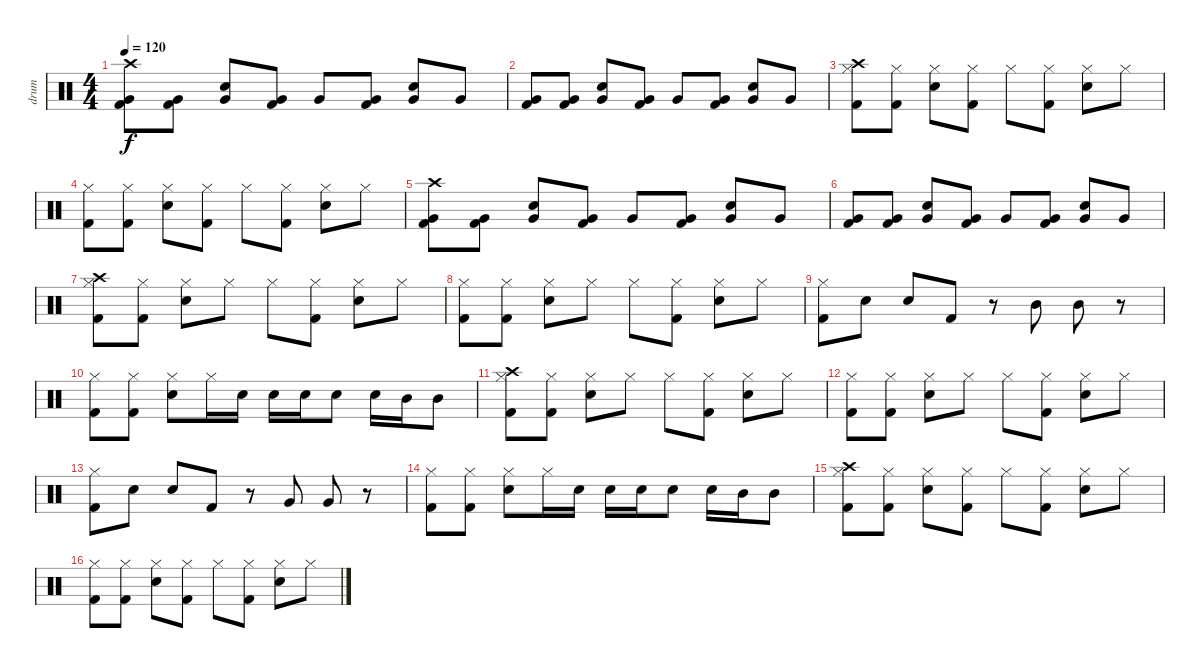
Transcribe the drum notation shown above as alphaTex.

\track ("drum" "drum") {instrument percussion}
\staff {score}
\articulation defaults
\ts (4 4)
\tempo 120
\clef neutral
\ks c
("Crash high (hit)" "Very Low Tom (hit)" "Kick (hit) 2").8{dy f} ("Very Low Tom (hit)" "Kick (hit) 2").8 ("Very Low Tom (hit)" "Electric Snare (hit)").8 ("Very Low Tom (hit)" "Kick (hit) 2").8 "Very Low Tom (hit)".8 ("Very Low Tom (hit)" "Kick (hit) 2").8 ("Very Low Tom (hit)" "Electric Snare (hit)").8 "Very Low Tom (hit)".8 |
("Very Low Tom (hit)" "Kick (hit) 2").8 ("Very Low Tom (hit)" "Kick (hit) 2").8 ("Very Low Tom (hit)" "Electric Snare (hit)").8 ("Very Low Tom (hit)" "Kick (hit) 2").8 "Very Low Tom (hit)".8 ("Very Low Tom (hit)" "Kick (hit) 2").8 ("Very Low Tom (hit)" "Electric Snare (hit)").8 "Very Low Tom (hit)".8 |
("Crash high (hit)" "Hi-Hat (closed)" "Kick (hit) 2").8 ("Hi-Hat (closed)" "Kick (hit) 2").8 ("Hi-Hat (closed)" "Electric Snare (hit)").8 ("Hi-Hat (closed)" "Kick (hit) 2").8 "Hi-Hat (closed)".8 ("Hi-Hat (closed)" "Kick (hit) 2").8 ("Hi-Hat (closed)" "Electric Snare (hit)").8 "Hi-Hat (closed)".8 |
("Hi-Hat (closed)" "Kick (hit) 2").8 ("Hi-Hat (closed)" "Kick (hit) 2").8 ("Hi-Hat (closed)" "Electric Snare (hit)").8 ("Hi-Hat (closed)" "Kick (hit) 2").8 "Hi-Hat (closed)".8 ("Hi-Hat (closed)" "Kick (hit) 2").8 ("Hi-Hat (closed)" "Electric Snare (hit)").8 "Hi-Hat (closed)".8 |
("Crash high (hit)" "Very Low Tom (hit)" "Kick (hit) 2").8 ("Very Low Tom (hit)" "Kick (hit) 2").8 ("Very Low Tom (hit)" "Electric Snare (hit)").8 ("Very Low Tom (hit)" "Kick (hit) 2").8 "Very Low Tom (hit)".8 ("Very Low Tom (hit)" "Kick (hit) 2").8 ("Very Low Tom (hit)" "Electric Snare (hit)").8 "Very Low Tom (hit)".8 |
("Very Low Tom (hit)" "Kick (hit) 2").8 ("Very Low Tom (hit)" "Kick (hit) 2").8 ("Very Low Tom (hit)" "Electric Snare (hit)").8 ("Very Low Tom (hit)" "Kick (hit) 2").8 "Very Low Tom (hit)".8 ("Very Low Tom (hit)" "Kick (hit) 2").8 ("Very Low Tom (hit)" "Electric Snare (hit)").8 "Very Low Tom (hit)".8 |
("Crash high (hit)" "Hi-Hat (closed)" "Kick (hit) 2").8 ("Hi-Hat (closed)" "Kick (hit) 2").8 ("Hi-Hat (closed)" "Electric Snare (hit)").8 "Hi-Hat (closed)".8 "Hi-Hat (closed)".8 ("Hi-Hat (closed)" "Kick (hit) 2").8 ("Hi-Hat (closed)" "Electric Snare (hit)").8 "Hi-Hat (closed)".8 |
("Hi-Hat (closed)" "Kick (hit) 2").8 ("Hi-Hat (closed)" "Kick (hit) 2").8 ("Hi-Hat (closed)" "Electric Snare (hit)").8 "Hi-Hat (closed)".8 "Hi-Hat (closed)".8 ("Hi-Hat (closed)" "Kick (hit) 2").8 ("Hi-Hat (closed)" "Electric Snare (hit)").8 "Hi-Hat (closed)".8 |
("Hi-Hat (closed)" "Kick (hit) 2").8 "Electric Snare (hit)".8 "Electric Snare (hit)".8 "Kick (hit) 2".8 r.8 "Mid Tom (hit)".8 "Mid Tom (hit)".8 r.8 |
("Hi-Hat (closed)" "Kick (hit) 2").8 ("Hi-Hat (closed)" "Kick (hit) 2").8 ("Hi-Hat (closed)" "Electric Snare (hit)").8 "Hi-Hat (closed)".16 "Electric Snare (hit)".16 "Electric Snare (hit)".16 "Electric Snare (hit)".16 "Electric Snare (hit)".8 "Electric Snare (hit)".16 "Mid Tom (hit)".16 "Mid Tom (hit)".8 |
("Crash high (hit)" "Hi-Hat (closed)" "Kick (hit) 2").8 ("Hi-Hat (closed)" "Kick (hit) 2").8 ("Hi-Hat (closed)" "Electric Snare (hit)").8 "Hi-Hat (closed)".8 "Hi-Hat (closed)".8 ("Hi-Hat (closed)" "Kick (hit) 2").8 ("Hi-Hat (closed)" "Electric Snare (hit)").8 "Hi-Hat (closed)".8 |
("Hi-Hat (closed)" "Kick (hit) 2").8 ("Hi-Hat (closed)" "Kick (hit) 2").8 ("Hi-Hat (closed)" "Electric Snare (hit)").8 "Hi-Hat (closed)".8 "Hi-Hat (closed)".8 ("Hi-Hat (closed)" "Kick (hit) 2").8 ("Hi-Hat (closed)" "Electric Snare (hit)").8 "Hi-Hat (closed)".8 |
("Hi-Hat (closed)" "Kick (hit) 2").8 "Electric Snare (hit)".8 "Electric Snare (hit)".8 "Kick (hit) 2".8 r.8 "Very Low Tom (hit)".8 "Very Low Tom (hit)".8 r.8 |
("Hi-Hat (closed)" "Kick (hit) 2").8 ("Hi-Hat (closed)" "Kick (hit) 2").8 ("Hi-Hat (closed)" "Electric Snare (hit)").8 "Hi-Hat (closed)".16 "Electric Snare (hit)".16 "Electric Snare (hit)".16 "Electric Snare (hit)".16 "Electric Snare (hit)".8 "Electric Snare (hit)".16 "Mid Tom (hit)".16 "Mid Tom (hit)".8 |
("Crash high (hit)" "Hi-Hat (closed)" "Kick (hit) 2").8 ("Hi-Hat (closed)" "Kick (hit) 2").8 ("Hi-Hat (closed)" "Electric Snare (hit)").8 ("Hi-Hat (closed)" "Kick (hit) 2").8 "Hi-Hat (closed)".8 ("Hi-Hat (closed)" "Kick (hit) 2").8 ("Hi-Hat (closed)" "Electric Snare (hit)").8 "Hi-Hat (closed)".8 |
("Hi-Hat (closed)" "Kick (hit) 2").8 ("Hi-Hat (closed)" "Kick (hit) 2").8 ("Hi-Hat (closed)" "Electric Snare (hit)").8 ("Hi-Hat (closed)" "Kick (hit) 2").8 "Hi-Hat (closed)".8 ("Hi-Hat (closed)" "Kick (hit) 2").8 ("Hi-Hat (closed)" "Electric Snare (hit)").8 "Hi-Hat (closed)".8
